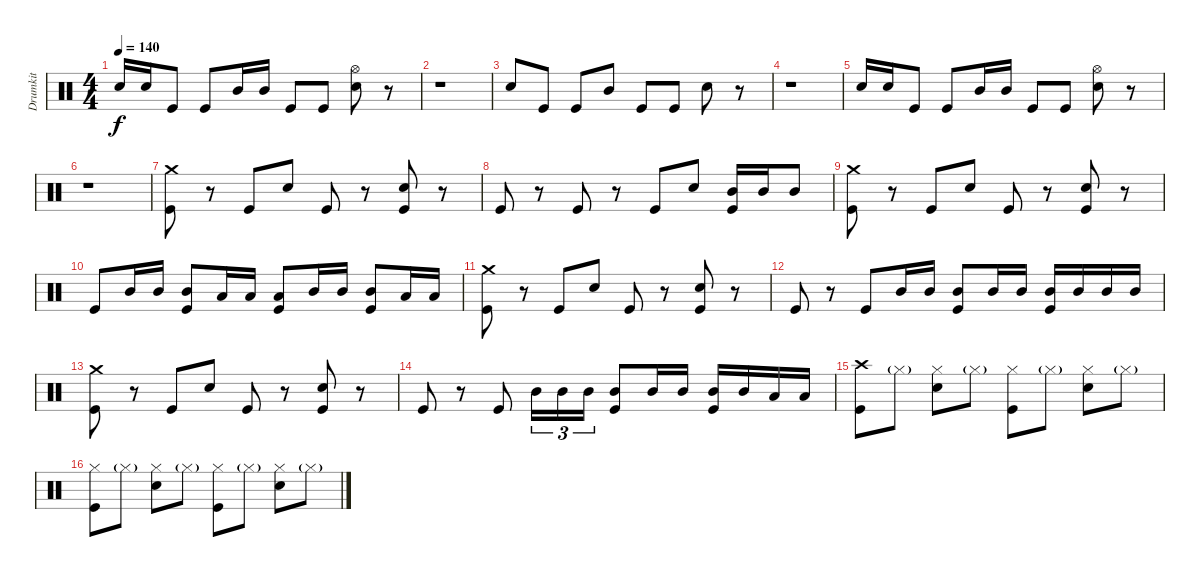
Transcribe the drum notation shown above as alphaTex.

\track ("Drumkit" "Drumkit") {instrument percussion}
\staff {score}
\articulation defaults
\ts (4 4)
\tempo 140
\clef neutral
\ks c "Snare (hit) 2".16{dy f} "Snare (hit) 2".16 "Kick (hit)".8 "Kick (hit)".8 "Mid Tom (hit)".16 "Mid Tom (hit)".16 "Kick (hit)".8 "Kick (hit)".8
("Snare (hit) 2" "Hi-Hat (open)").8 r.8 |
r.1 |
"Snare (hit) 2".8 "Kick (hit)".8 "Kick (hit)".8 "Mid Tom (hit)".8 "Kick (hit)".8 "Kick (hit)".8 "Snare (hit) 2".8 r.8 |
r.1 |
"Snare (hit) 2".16 "Snare (hit) 2".16 "Kick (hit)".8 "Kick (hit)".8 "Mid Tom (hit)".16 "Mid Tom (hit)".16 "Kick (hit)".8 "Kick (hit)".8 ("Snare (hit) 2" "Hi-Hat (open)").8 r.8 |
r.1 |
("Crash medium (hit)" "Kick (hit)").8 r.8 "Kick (hit)".8 "Snare (hit) 2".8 "Kick (hit)".8 r.8 ("Kick (hit)" "Snare (hit) 2").8 r.8 |
"Kick (hit)".8 r.8 "Kick (hit)".8 r.8 "Kick (hit)".8 "Snare (hit) 2".8 ("Kick (hit)" "Mid Tom (hit)").16 "Mid Tom (hit)".16 "Mid Tom (hit)".8 |
("Crash medium (hit)" "Kick (hit)").8 r.8 "Kick (hit)".8 "Snare (hit) 2".8 "Kick (hit)".8 r.8 ("Kick (hit)" "Snare (hit) 2").8 r.8 |
"Kick (hit)".8 "Mid Tom (hit)".16 "Mid Tom (hit)".16 ("Kick (hit)" "Mid Tom (hit)").8 "Low Tom (hit)".16 "Low Tom (hit)".16 ("Kick (hit)" "Low Tom (hit)").8 "Mid Tom (hit)".16 "Mid Tom (hit)".16 ("Kick (hit)" "Mid Tom (hit)").8 "Low Tom (hit)".16 "Low Tom (hit)".16 |
("Crash medium (hit)" "Kick (hit)").8 r.8 "Kick (hit)".8 "Snare (hit) 2".8 "Kick (hit)".8 r.8 ("Kick (hit)" "Snare (hit) 2").8 r.8 |
"Kick (hit)".8 r.8 "Kick (hit)".8 "Mid Tom (hit)".16 "Mid Tom (hit)".16 ("Kick (hit)" "Mid Tom (hit)").8 "Mid Tom (hit)".16 "Mid Tom (hit)".16 ("Kick (hit)" "Mid Tom (hit)").16 "Mid Tom (hit)".16 "Mid Tom (hit)".16 "Mid Tom (hit)".16 |
("Crash medium (hit)" "Kick (hit)").8 r.8 "Kick (hit)".8 "Snare (hit) 2".8 "Kick (hit)".8 r.8 ("Kick (hit)" "Snare (hit) 2").8 r.8 |
"Kick (hit)".8 r.8 "Kick (hit)".8 "Mid Tom (hit)".16{tu (3 2)} "Mid Tom (hit)".16{tu (3 2)} "Mid Tom (hit)".16{tu (3 2)} ("Kick (hit)" "Mid Tom (hit)").8 "Mid Tom (hit)".16 "Mid Tom (hit)".16 ("Kick (hit)" "Mid Tom (hit)").16 "Mid Tom (hit)".16 "Low Tom (hit)".16 "Low Tom (hit)".16 |
("Kick (hit)" "Crash high (hit)").8 "Hi-Hat (closed)"{g}.8 ("Snare (hit) 2" "Hi-Hat (closed)").8 "Hi-Hat (closed)"{g}.8 ("Kick (hit)" "Hi-Hat (closed)").8 "Hi-Hat (closed)"{g}.8 ("Snare (hit) 2" "Hi-Hat (closed)").8 "Hi-Hat (closed)"{g}.8 |
("Kick (hit)" "Hi-Hat (closed)").8 "Hi-Hat (closed)"{g}.8 ("Snare (hit) 2" "Hi-Hat (closed)").8 "Hi-Hat (closed)"{g}.8 ("Kick (hit)" "Hi-Hat (closed)").8 "Hi-Hat (closed)"{g}.8 ("Snare (hit) 2" "Hi-Hat (closed)").8 "Hi-Hat (closed)"{g}.8
